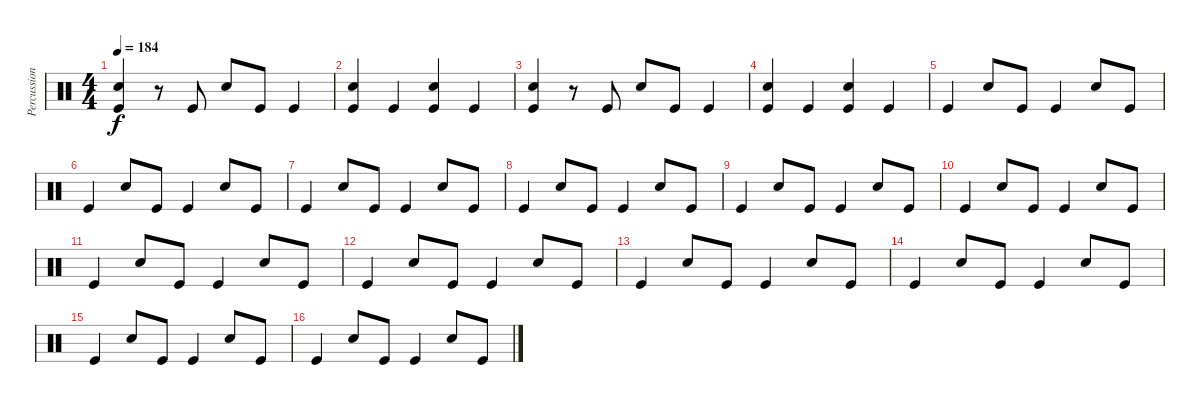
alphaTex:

\track ("Percussion" "Percussion") {instrument percussion}
\staff {score}
\articulation defaults
\ts (4 4)
\tempo 184
\clef neutral
\ks c
("Kick (hit)" "Snare (hit) 2").4{dy f} r.8 "Kick (hit)".8 "Snare (hit) 2".8 "Kick (hit)".8 "Kick (hit)".4 |
("Kick (hit)" "Snare (hit) 2").4 "Kick (hit)".4 ("Kick (hit)" "Snare (hit) 2").4 "Kick (hit)".4 |
("Kick (hit)" "Snare (hit) 2").4 r.8 "Kick (hit)".8 "Snare (hit) 2".8 "Kick (hit)".8 "Kick (hit)".4 |
("Kick (hit)" "Snare (hit) 2").4 "Kick (hit)".4 ("Kick (hit)" "Snare (hit) 2").4 "Kick (hit)".4 |
"Kick (hit)".4 "Snare (hit) 2".8 "Kick (hit)".8 "Kick (hit)".4 "Snare (hit) 2".8 "Kick (hit)".8 |
"Kick (hit)".4 "Snare (hit) 2".8 "Kick (hit)".8 "Kick (hit)".4 "Snare (hit) 2".8 "Kick (hit)".8 |
"Kick (hit)".4 "Snare (hit) 2".8 "Kick (hit)".8 "Kick (hit)".4 "Snare (hit) 2".8 "Kick (hit)".8 |
"Kick (hit)".4 "Snare (hit) 2".8 "Kick (hit)".8 "Kick (hit)".4 "Snare (hit) 2".8 "Kick (hit)".8 |
"Kick (hit)".4 "Snare (hit) 2".8 "Kick (hit)".8 "Kick (hit)".4 "Snare (hit) 2".8 "Kick (hit)".8 |
"Kick (hit)".4 "Snare (hit) 2".8 "Kick (hit)".8 "Kick (hit)".4 "Snare (hit) 2".8 "Kick (hit)".8 |
"Kick (hit)".4 "Snare (hit) 2".8 "Kick (hit)".8 "Kick (hit)".4 "Snare (hit) 2".8 "Kick (hit)".8 |
"Kick (hit)".4 "Snare (hit) 2".8 "Kick (hit)".8 "Kick (hit)".4 "Snare (hit) 2".8 "Kick (hit)".8 |
"Kick (hit)".4 "Snare (hit) 2".8 "Kick (hit)".8 "Kick (hit)".4 "Snare (hit) 2".8 "Kick (hit)".8 |
"Kick (hit)".4 "Snare (hit) 2".8 "Kick (hit)".8 "Kick (hit)".4 "Snare (hit) 2".8 "Kick (hit)".8 |
"Kick (hit)".4 "Snare (hit) 2".8 "Kick (hit)".8 "Kick (hit)".4 "Snare (hit) 2".8 "Kick (hit)".8 |
"Kick (hit)".4 "Snare (hit) 2".8 "Kick (hit)".8 "Kick (hit)".4 "Snare (hit) 2".8 "Kick (hit)".8
